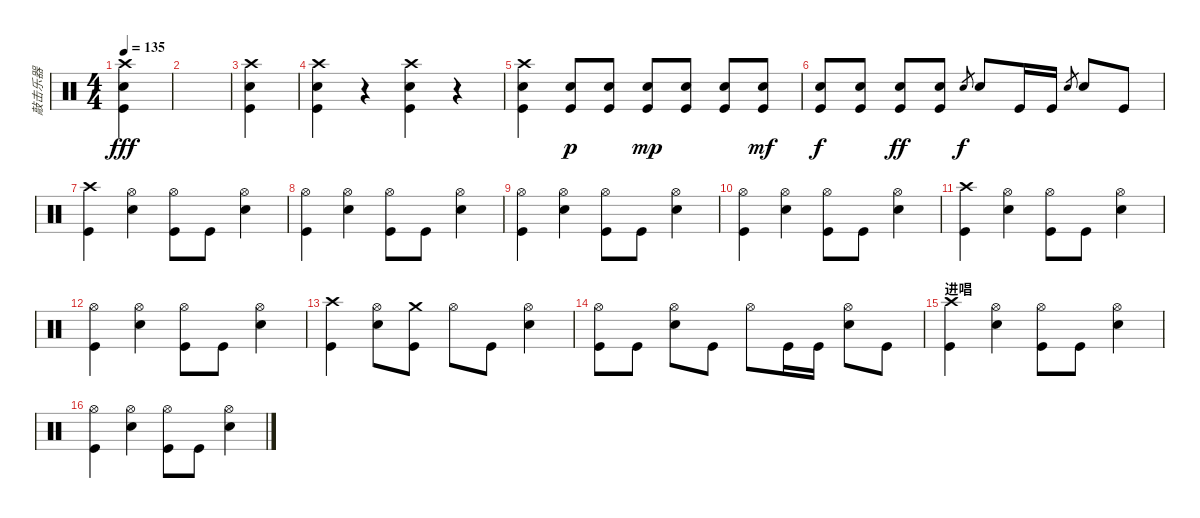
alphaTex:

\track ("敲击乐器" "敲击乐器") {instrument percussion}
\staff {score}
\articulation defaults
\ts (4 4)
\tempo 135
\clef neutral
\ks c
("Crash high (hit)" "Electric Snare (hit)" "Kick (hit)").4{dy fff} |
|
("Crash high (hit)" "Electric Snare (hit)" "Kick (hit)").4 |
("Crash high (hit)" "Electric Snare (hit)" "Kick (hit)").4 r.4 ("Crash high (hit)" "Electric Snare (hit)" "Kick (hit)").4 r.4 |
("Crash high (hit)" "Electric Snare (hit)" "Kick (hit)").4 ("Electric Snare (hit)" "Kick (hit)").8{dy p} ("Electric Snare (hit)" "Kick (hit)").8 ("Electric Snare (hit)" "Kick (hit)").8{dy mp} ("Electric Snare (hit)" "Kick (hit)").8 ("Electric Snare (hit)" "Kick (hit)").8 ("Electric Snare (hit)" "Kick (hit)").8{dy mf} |
("Electric Snare (hit)" "Kick (hit)").8{dy f} ("Electric Snare (hit)" "Kick (hit)").8 ("Electric Snare (hit)" "Kick (hit)").8{dy ff} ("Electric Snare (hit)" "Kick (hit)").8 "Electric Snare (hit)".8{gr dy f} "Electric Snare (hit)".8 "Kick (hit)".16 "Kick (hit)".16 "Electric Snare (hit)".8{gr} "Electric Snare (hit)".8 "Kick (hit)".8 |
("Crash high (hit)" "Kick (hit)").4 ("Hi-Hat (open)" "Electric Snare (hit)").4 ("Hi-Hat (open)" "Kick (hit)").8 "Kick (hit)".8 ("Hi-Hat (open)" "Electric Snare (hit)").4 |
("Hi-Hat (open)" "Kick (hit)").4 ("Hi-Hat (open)" "Electric Snare (hit)").4 ("Hi-Hat (open)" "Kick (hit)").8 "Kick (hit)".8 ("Hi-Hat (open)" "Electric Snare (hit)").4 |
("Hi-Hat (open)" "Kick (hit)").4 ("Hi-Hat (open)" "Electric Snare (hit)").4 ("Hi-Hat (open)" "Kick (hit)").8 "Kick (hit)".8 ("Hi-Hat (open)" "Electric Snare (hit)").4 |
("Hi-Hat (open)" "Kick (hit)").4 ("Hi-Hat (open)" "Electric Snare (hit)").4 ("Hi-Hat (open)" "Kick (hit)").8 "Kick (hit)".8 ("Hi-Hat (open)" "Electric Snare (hit)").4 |
("Crash high (hit)" "Kick (hit)").4 ("Hi-Hat (open)" "Electric Snare (hit)").4 ("Hi-Hat (open)" "Kick (hit)").8 "Kick (hit)".8 ("Hi-Hat (open)" "Electric Snare (hit)").4 |
("Hi-Hat (open)" "Kick (hit)").4 ("Hi-Hat (open)" "Electric Snare (hit)").4 ("Hi-Hat (open)" "Kick (hit)").8 "Kick (hit)".8 ("Hi-Hat (open)" "Electric Snare (hit)").4 |
("Crash high (hit)" "Kick (hit)").4 ("Hi-Hat (open)" "Electric Snare (hit)").8 ("Crash medium (hit)" "Kick (hit)").8 "Hi-Hat (open)".8 "Kick (hit)".8 ("Hi-Hat (open)" "Electric Snare (hit)").4 |
("Hi-Hat (open)" "Kick (hit)").8 "Kick (hit)".8 ("Hi-Hat (open)" "Electric Snare (hit)").8 "Kick (hit)".8 "Hi-Hat (open)".8 "Kick (hit)".16 "Kick (hit)".16 ("Hi-Hat (open)" "Electric Snare (hit)").8 "Kick (hit)".8 |
\section ("" "进唱")
("Crash high (hit)" "Kick (hit)").4 ("Hi-Hat (open)" "Electric Snare (hit)").4 ("Hi-Hat (open)" "Kick (hit)").8 "Kick (hit)".8 ("Hi-Hat (open)" "Electric Snare (hit)").4 |
("Hi-Hat (open)" "Kick (hit)").4 ("Hi-Hat (open)" "Electric Snare (hit)").4 ("Hi-Hat (open)" "Kick (hit)").8 "Kick (hit)".8 ("Hi-Hat (open)" "Electric Snare (hit)").4
